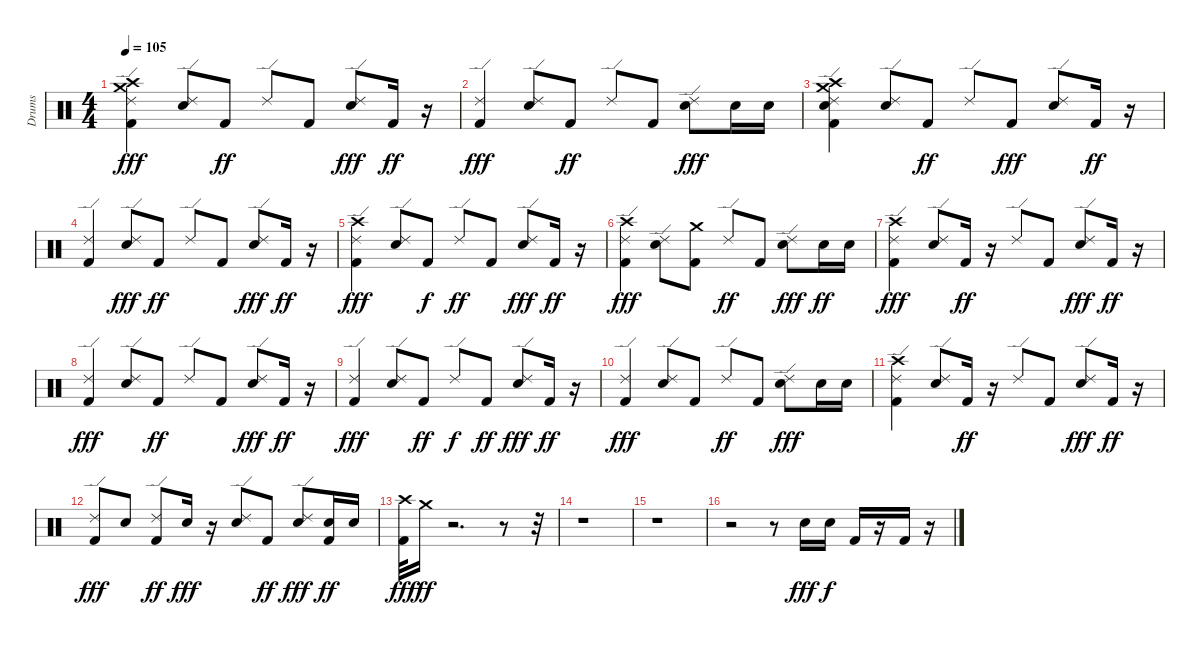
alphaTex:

\track ("Drums" "Drums") {instrument percussion}
\staff {score}
\articulation defaults
\ts (4 4)
\tempo 105
\clef neutral
\ks c
("Crash high (hit)" "Crash medium (hit)" "Ride (edge) 2" "Kick (hit) 2").4{dy fff} ("Ride (edge) 2" "Snare (hit) 2").8 "Kick (hit) 2".8{dy ff} "Ride (edge) 2".8 "Kick (hit) 2".8 ("Ride (edge) 2" "Snare (hit) 2").8{dy fff} "Kick (hit) 2".16{dy ff} r.16 |
("Ride (edge) 2" "Kick (hit) 2").4{dy fff} ("Ride (edge) 2" "Snare (hit) 2").8 "Kick (hit) 2".8{dy ff} "Ride (edge) 2".8 "Kick (hit) 2".8 ("Ride (edge) 2" "Snare (hit) 2").8{dy fff} "Snare (hit) 2".16 "Snare (hit) 2".16 |
("Crash medium (hit)" "Crash high (hit)" "Ride (edge) 2" "Kick (hit) 2" "Snare (hit) 2").4 ("Ride (edge) 2" "Snare (hit) 2").8 "Kick (hit) 2".8{dy ff} "Ride (edge) 2".8 "Kick (hit) 2".8{dy fff} ("Ride (edge) 2" "Snare (hit) 2").8 "Kick (hit) 2".16{dy ff} r.16 |
("Ride (edge) 2" "Kick (hit) 2").4 ("Ride (edge) 2" "Snare (hit) 2").8{dy fff} "Kick (hit) 2".8{dy ff} "Ride (edge) 2".8 "Kick (hit) 2".8 ("Ride (edge) 2" "Snare (hit) 2").8{dy fff} "Kick (hit) 2".16{dy ff} r.16 |
("Crash high (hit)" "Ride (edge) 2" "Kick (hit) 2").4{dy fff} ("Ride (edge) 2" "Snare (hit) 2").8 "Kick (hit) 2".8{dy f} "Ride (edge) 2".8{dy ff} "Kick (hit) 2".8 ("Ride (edge) 2" "Snare (hit) 2").8{dy fff} "Kick (hit) 2".16{dy ff} r.16 |
("Crash high (hit)" "Ride (edge) 2" "Kick (hit) 2").4{dy fff} ("Ride (edge) 2" "Snare (hit) 2").8 ("Kick (hit) 2" "Crash medium (hit)").8 "Ride (edge) 2".8{dy ff} "Kick (hit) 2".8 ("Ride (edge) 2" "Snare (hit) 2").8{dy fff} "Snare (hit) 2".16{dy ff} "Snare (hit) 2".16 |
("Crash high (hit)" "Ride (edge) 2" "Kick (hit) 2").4{dy fff} ("Ride (edge) 2" "Snare (hit) 2").8 "Kick (hit) 2".16{dy ff} r.16 "Ride (edge) 2".8 "Kick (hit) 2".8 ("Ride (edge) 2" "Snare (hit) 2").8{dy fff} "Kick (hit) 2".16{dy ff} r.16 |
("Ride (edge) 2" "Kick (hit) 2").4{dy fff} ("Ride (edge) 2" "Snare (hit) 2").8 "Kick (hit) 2".8{dy ff} "Ride (edge) 2".8 "Kick (hit) 2".8 ("Ride (edge) 2" "Snare (hit) 2").8{dy fff} "Kick (hit) 2".16{dy ff} r.16 |
("Ride (edge) 2" "Kick (hit) 2").4{dy fff} ("Ride (edge) 2" "Snare (hit) 2").8 "Kick (hit) 2".8{dy ff} "Ride (edge) 2".8{dy f} "Kick (hit) 2".8{dy ff} ("Ride (edge) 2" "Snare (hit) 2").8{dy fff} "Kick (hit) 2".16{dy ff} r.16 |
("Ride (edge) 2" "Kick (hit) 2").4{dy fff} ("Ride (edge) 2" "Snare (hit) 2").8 "Kick (hit) 2".8 "Ride (edge) 2".8{dy ff} "Kick (hit) 2".8 ("Ride (edge) 2" "Snare (hit) 2").8{dy fff} "Snare (hit) 2".16 "Snare (hit) 2".16 |
("Crash high (hit)" "Ride (edge) 2" "Kick (hit) 2").4 ("Ride (edge) 2" "Snare (hit) 2").8 "Kick (hit) 2".16{dy ff} r.16 "Ride (edge) 2".8 "Kick (hit) 2".8 ("Ride (edge) 2" "Snare (hit) 2").8{dy fff} "Kick (hit) 2".16{dy ff} r.16 |
("Ride (edge) 2" "Kick (hit) 2").8{dy fff} "Snare (hit) 2".8 ("Ride (edge) 2" "Kick (hit) 2").8{dy ff} "Snare (hit) 2".16{dy fff} r.16 ("Ride (edge) 2" "Snare (hit) 2").8 "Kick (hit) 2".8{dy ff} ("Ride (edge) 2" "Snare (hit) 2").8{dy fff} ("Kick (hit) 2" "Snare (hit) 2").16{dy ff} "Snare (hit) 2".16 |
("Kick (hit) 2" "Crash high (hit)").32{dy fff} "Crash medium (hit)".16{dy ff} r.2{d} r.8 r.32 |
r.1 |
r.1 |
r.2 r.8 "Snare (hit) 2".16{dy fff} "Snare (hit) 2".16{dy f} "Kick (hit) 2".16 r.16 "Kick (hit) 2".16 r.16
